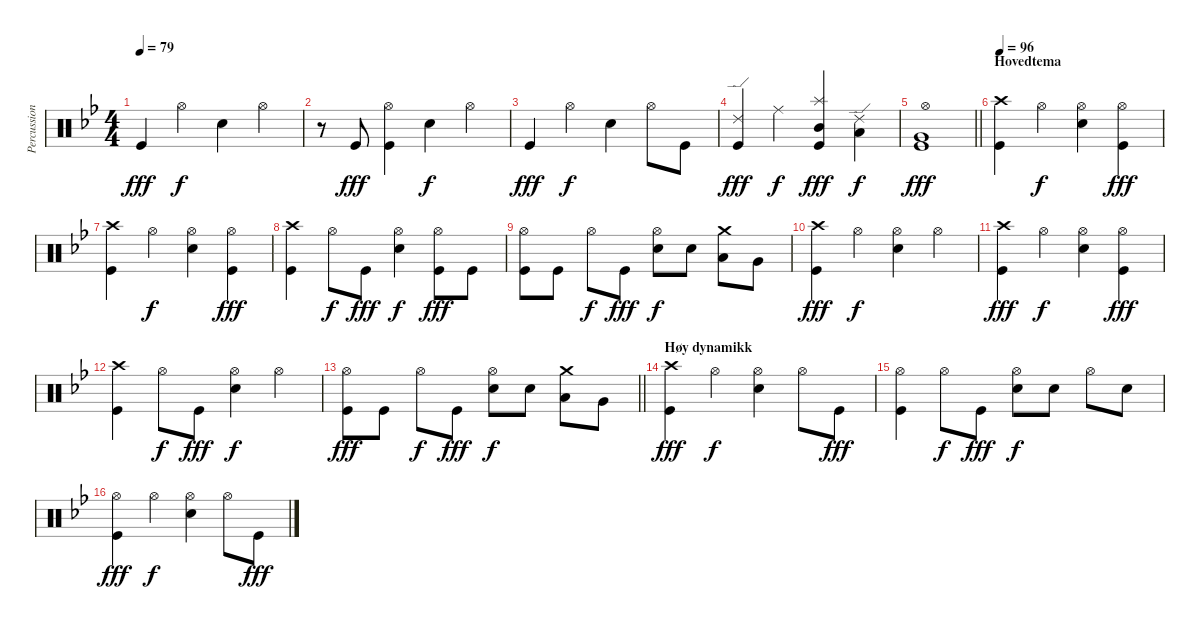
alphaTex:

\track ("Percussion" "Percussion") {instrument percussion}
\staff {score}
\articulation defaults
\ts (4 4)
\tempo 79
\clef neutral
\ks gminor "Kick (hit)".4{dy fff} "Hi-Hat (open)".4{dy f} "Electric Snare (hit)".4 "Hi-Hat (open)".4
|
r.8 "Kick (hit)".8{dy fff} ("Hi-Hat (open)" "Kick (hit)").4 "Electric Snare (hit)".4{dy f} "Hi-Hat (open)".4 |
"Kick (hit)".4{dy fff} "Hi-Hat (open)".4{dy f} "Electric Snare (hit)".4 "Hi-Hat (open)".8 "Kick (hit)".8 |
("Ride (edge) 2" "Kick (hit)").4{dy fff} "Ride (middle)".4{dy f} ("Splash (hit)" "Mid Tom (hit)" "Kick (hit)").4{dy fff} ("Ride (edge) 2" "Low Tom (hit)").4{dy f} |
\barLineRight lightlight
("Hi-Hat (open)" "Very Low Tom (hit)" "Kick (hit)").1{dy fff} |
\section ("" "Hovedtema")
\tempo 96
("Crash high (hit)" "Kick (hit)").4 "Hi-Hat (open)".4{dy f} ("Hi-Hat (open)" "Electric Snare (hit)").4 ("Hi-Hat (open)" "Kick (hit)").4{dy fff} |
("Crash high (hit)" "Kick (hit)").4 "Hi-Hat (open)".4{dy f} ("Hi-Hat (open)" "Electric Snare (hit)").4 ("Hi-Hat (open)" "Kick (hit)").4{dy fff} |
("Crash high (hit)" "Kick (hit)").4 "Hi-Hat (open)".8{dy f} "Kick (hit)".8{dy fff} ("Hi-Hat (open)" "Electric Snare (hit)").4{dy f} ("Hi-Hat (open)" "Kick (hit)").8{dy fff} "Kick (hit)".8 |
("Hi-Hat (open)" "Kick (hit)").8 "Kick (hit)".8 "Hi-Hat (open)".8{dy f} "Kick (hit)".8{dy fff} ("Hi-Hat (open)" "Electric Snare (hit)").8{dy f} "Electric Snare (hit)".8 ("Crash medium (hit)" "Low Tom (hit)").8 "Very Low Tom (hit)".8 |
("Crash high (hit)" "Kick (hit)").4{dy fff} "Hi-Hat (open)".4{dy f} ("Hi-Hat (open)" "Electric Snare (hit)").4 "Hi-Hat (open)".4 |
("Crash high (hit)" "Kick (hit)").4{dy fff} "Hi-Hat (open)".4{dy f} ("Hi-Hat (open)" "Electric Snare (hit)").4 ("Hi-Hat (open)" "Kick (hit)").4{dy fff} |
("Crash high (hit)" "Kick (hit)").4 "Hi-Hat (open)".8{dy f} "Kick (hit)".8{dy fff} ("Hi-Hat (open)" "Electric Snare (hit)").4{dy f} "Hi-Hat (open)".4 |
\barLineRight lightlight
("Hi-Hat (open)" "Kick (hit)").8{dy fff} "Kick (hit)".8 "Hi-Hat (open)".8{dy f} "Kick (hit)".8{dy fff} ("Hi-Hat (open)" "Electric Snare (hit)").8{dy f} "Electric Snare (hit)".8 ("Crash medium (hit)" "Low Tom (hit)").8 "Very Low Tom (hit)".8 |
\section ("" "Høy dynamikk")
("Crash high (hit)" "Kick (hit)").4{dy fff} "Hi-Hat (open)".4{dy f} ("Hi-Hat (open)" "Electric Snare (hit)").4 "Hi-Hat (open)".8 "Kick (hit)".8{dy fff} |
("Hi-Hat (open)" "Kick (hit)").4 "Hi-Hat (open)".8{dy f} "Kick (hit)".8{dy fff} ("Hi-Hat (open)" "Electric Snare (hit)").8{dy f} "Electric Snare (hit)".8 "Hi-Hat (open)".8 "Electric Snare (hit)".8 |
("Hi-Hat (open)" "Kick (hit)").4{dy fff} "Hi-Hat (open)".4{dy f} ("Hi-Hat (open)" "Electric Snare (hit)").4 "Hi-Hat (open)".8 "Kick (hit)".8{dy fff}
